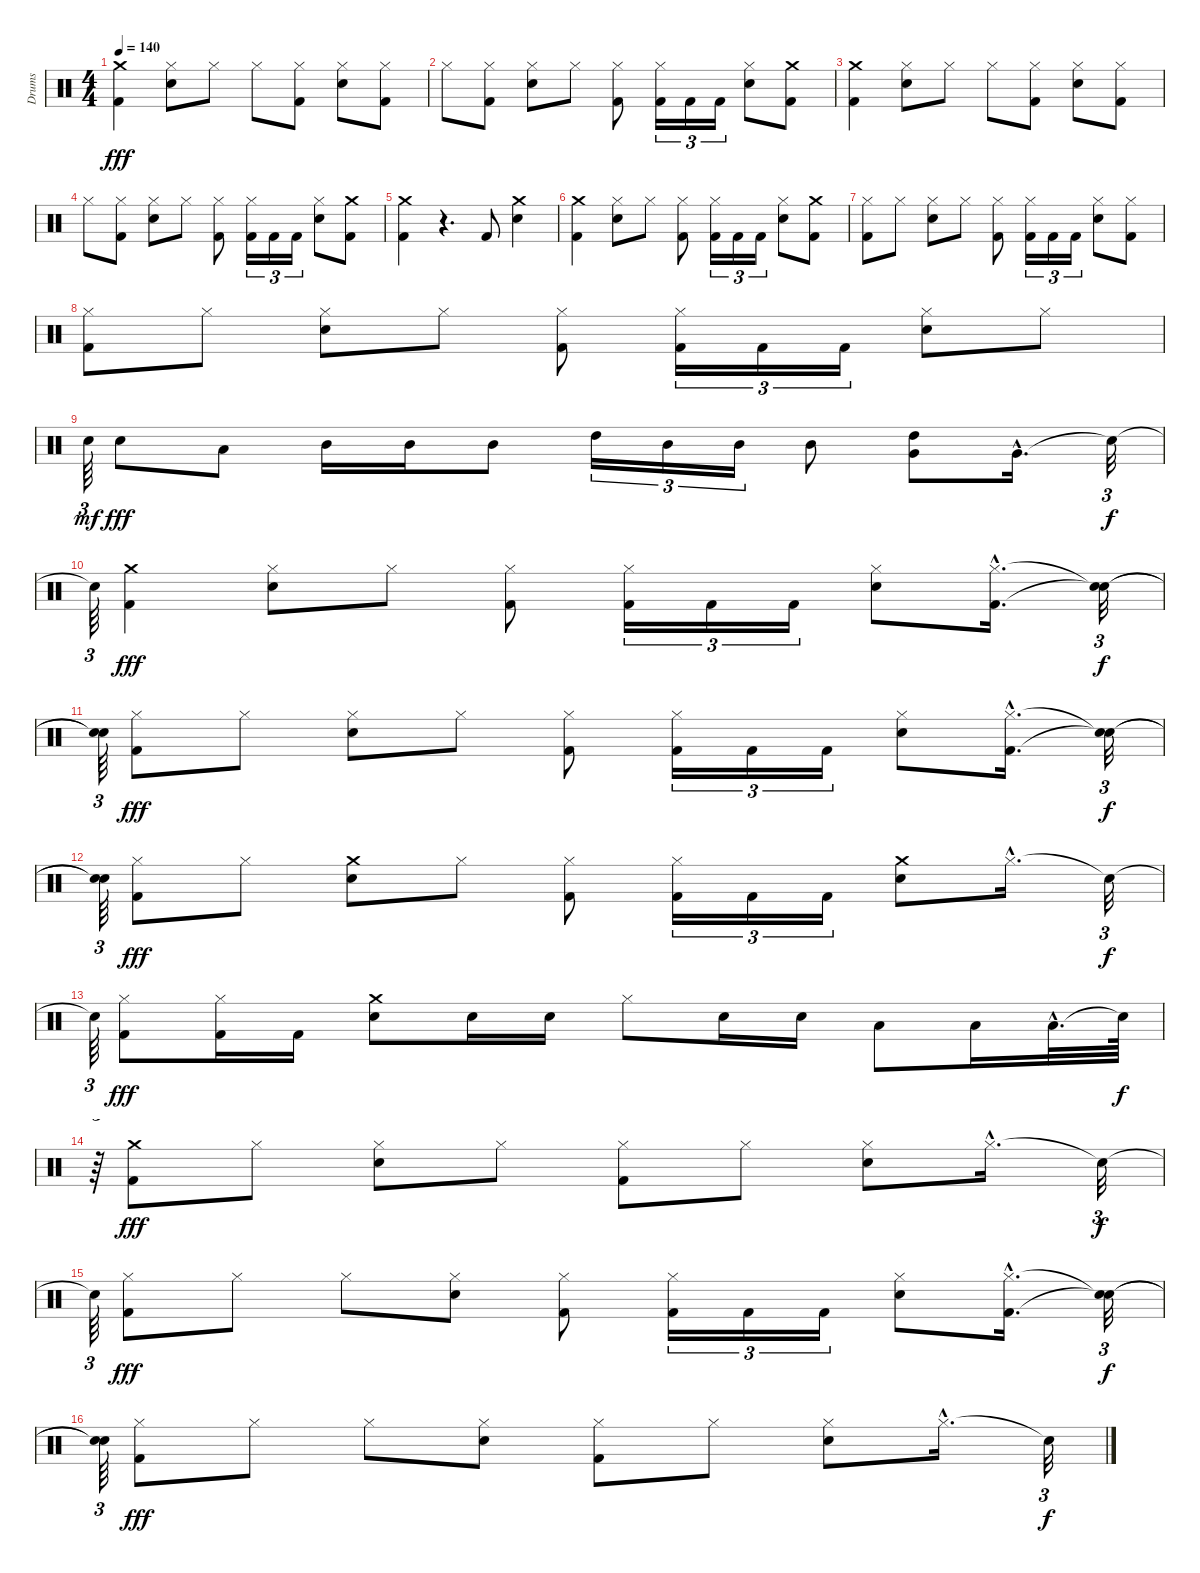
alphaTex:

\track ("Drums" "Drums") {instrument percussion}
\staff {score}
\articulation defaults
\ts (4 4)
\tempo 140
\clef neutral
\ks c
("Kick (hit) 2" "Crash medium (hit)").4{dy fff} ("Snare (hit) 2" "Hi-Hat (closed)").8 "Hi-Hat (closed)".8 "Hi-Hat (closed)".8 ("Kick (hit) 2" "Hi-Hat (closed)").8 ("Snare (hit) 2" "Hi-Hat (closed)").8 ("Kick (hit) 2" "Hi-Hat (closed)").8 |
"Hi-Hat (closed)".8 ("Kick (hit) 2" "Hi-Hat (closed)").8 ("Snare (hit) 2" "Hi-Hat (closed)").8 "Hi-Hat (closed)".8 ("Kick (hit) 2" "Hi-Hat (closed)").8 ("Kick (hit) 2" "Hi-Hat (closed)").16{tu (3 2)} "Kick (hit) 2".16{tu (3 2)} "Kick (hit) 2".16{tu (3 2)} ("Snare (hit) 2" "Hi-Hat (closed)").8 ("Kick (hit) 2" "Crash medium (hit)").8 |
("Kick (hit) 2" "Crash medium (hit)").4 ("Snare (hit) 2" "Hi-Hat (closed)").8 "Hi-Hat (closed)".8 "Hi-Hat (closed)".8 ("Kick (hit) 2" "Hi-Hat (closed)").8 ("Snare (hit) 2" "Hi-Hat (closed)").8 ("Kick (hit) 2" "Hi-Hat (closed)").8 |
"Hi-Hat (closed)".8 ("Kick (hit) 2" "Hi-Hat (closed)").8 ("Snare (hit) 2" "Hi-Hat (closed)").8 "Hi-Hat (closed)".8 ("Kick (hit) 2" "Hi-Hat (closed)").8 ("Kick (hit) 2" "Hi-Hat (closed)").16{tu (3 2)} "Kick (hit) 2".16{tu (3 2)} "Kick (hit) 2".16{tu (3 2)} ("Snare (hit) 2" "Hi-Hat (closed)").8 ("Kick (hit) 2" "Crash medium (hit)").8 |
("Kick (hit) 2" "Crash medium (hit)").4 r.4{d} "Kick (hit) 2".8 ("Crash medium (hit)" "Snare (hit) 2").4 |
("Crash medium (hit)" "Kick (hit) 2").4 ("Snare (hit) 2" "Hi-Hat (closed)").8 "Hi-Hat (closed)".8 ("Kick (hit) 2" "Hi-Hat (closed)").8 ("Kick (hit) 2" "Hi-Hat (closed)").16{tu (3 2)} "Kick (hit) 2".16{tu (3 2)} "Kick (hit) 2".16{tu (3 2)} ("Snare (hit) 2" "Hi-Hat (closed)").8 ("Kick (hit) 2" "Crash medium (hit)").8 |
("Kick (hit) 2" "Hi-Hat (closed)").8 "Hi-Hat (closed)".8 ("Snare (hit) 2" "Hi-Hat (closed)").8 "Hi-Hat (closed)".8 ("Kick (hit) 2" "Hi-Hat (closed)").8 ("Kick (hit) 2" "Hi-Hat (closed)").16{tu (3 2)} "Kick (hit) 2".16{tu (3 2)} "Kick (hit) 2".16{tu (3 2)} ("Snare (hit) 2" "Hi-Hat (closed)").8 ("Hi-Hat (closed)" "Kick (hit) 2").8 |
("Kick (hit) 2" "Hi-Hat (closed)").8 "Hi-Hat (closed)".8 ("Snare (hit) 2" "Hi-Hat (closed)").8 "Hi-Hat (closed)".8 ("Kick (hit) 2" "Hi-Hat (closed)").8 ("Kick (hit) 2" "Hi-Hat (closed)").16{tu (3 2)} "Kick (hit) 2".16{tu (3 2)} "Kick (hit) 2".16{tu (3 2)} ("Snare (hit) 2" "Hi-Hat (closed)").8 "Hi-Hat (closed)".8 |
"Snare (hit) 2".64{tu (3 2) dy mf} "Snare (hit) 2".8{dy fff} "Low Tom (hit)".8 "Mid Tom (hit)".16 "Mid Tom (hit)".16 "Mid Tom (hit)".8 "High Tom (hit)".16{tu (3 2)} "Mid Tom (hit)".16{tu (3 2)} "Mid Tom (hit)".16{tu (3 2)} "Mid Tom (hit)".8 ("Very Low Tom (hit)" "High Tom (hit)").8 "Very Low Tom (hit)"{hac}.16{d} "Snare (hit)"{t}.32{tu (3 2) dy f} |
"Snare (hit)"{t}.64{tu (3 2)} ("Crash medium (hit)" "Kick (hit) 2").4{dy fff} ("Snare (hit) 2" "Hi-Hat (closed)").8 "Hi-Hat (closed)".8 ("Kick (hit) 2" "Hi-Hat (closed)").8 ("Kick (hit) 2" "Hi-Hat (closed)").16{tu (3 2)} "Kick (hit) 2".16{tu (3 2)} "Kick (hit) 2".16{tu (3 2)} ("Snare (hit) 2" "Hi-Hat (closed)").8 ("Hi-Hat (closed)"{hac} "Kick (hit) 2"{hac}).16{d} ("Snare (hit)"{t} "Snare (hit)"{t}).32{tu (3 2) dy f} |
("Snare (hit)"{t} "Snare (hit)"{t}).64{tu (3 2)} ("Kick (hit) 2" "Hi-Hat (closed)").8{dy fff} "Hi-Hat (closed)".8 ("Snare (hit) 2" "Hi-Hat (closed)").8 "Hi-Hat (closed)".8 ("Kick (hit) 2" "Hi-Hat (closed)").8 ("Kick (hit) 2" "Hi-Hat (closed)").16{tu (3 2)} "Kick (hit) 2".16{tu (3 2)} "Kick (hit) 2".16{tu (3 2)} ("Snare (hit) 2" "Hi-Hat (closed)").8 ("Hi-Hat (closed)"{hac} "Kick (hit) 2"{hac}).16{d} ("Snare (hit)"{t} "Snare (hit)"{t}).32{tu (3 2) dy f} |
("Snare (hit)"{t} "Snare (hit)"{t}).64{tu (3 2)} ("Kick (hit) 2" "Hi-Hat (closed)").8{dy fff} "Hi-Hat (closed)".8 ("Crash medium (hit)" "Snare (hit) 2").8 "Hi-Hat (closed)".8 ("Kick (hit) 2" "Hi-Hat (closed)").8 ("Kick (hit) 2" "Hi-Hat (closed)").16{tu (3 2)} "Kick (hit) 2".16{tu (3 2)} "Kick (hit) 2".16{tu (3 2)} ("Crash medium (hit)" "Snare (hit) 2").8 "Hi-Hat (closed)"{hac}.16{d} "Snare (hit)"{t}.32{tu (3 2) dy f} |
"Snare (hit)"{t}.64{tu (3 2)} ("Kick (hit) 2" "Hi-Hat (closed)").8{dy fff} ("Kick (hit) 2" "Hi-Hat (closed)").16 "Kick (hit) 2".16 ("Snare (hit) 2" "Crash medium (hit)").8 "Snare (hit) 2".16 "Snare (hit) 2".16 "Hi-Hat (closed)".8 "Snare (hit) 2".16 "Snare (hit) 2".16 "Low Tom (hit)".8 "Low Tom (hit)".16 "Low Tom (hit)"{hac}.32{d} "Snare (hit)"{t}.64{dy f} |
r.64{tu (3 2)} ("Kick (hit) 2" "Crash medium (hit)").8{dy fff} "Hi-Hat (closed)".8 ("Snare (hit) 2" "Hi-Hat (closed)").8 "Hi-Hat (closed)".8 ("Kick (hit) 2" "Hi-Hat (closed)").8 "Hi-Hat (closed)".8 ("Snare (hit) 2" "Hi-Hat (closed)").8 "Hi-Hat (closed)"{hac}.16{d} "Snare (hit)"{t}.32{tu (3 2) dy f} |
"Snare (hit)"{t}.64{tu (3 2)} ("Kick (hit) 2" "Hi-Hat (closed)").8{dy fff} "Hi-Hat (closed)".8 "Hi-Hat (closed)".8 ("Snare (hit) 2" "Hi-Hat (closed)").8 ("Kick (hit) 2" "Hi-Hat (closed)").8 ("Kick (hit) 2" "Hi-Hat (closed)").16{tu (3 2)} "Kick (hit) 2".16{tu (3 2)} "Kick (hit) 2".16{tu (3 2)} ("Snare (hit) 2" "Hi-Hat (closed)").8 ("Kick (hit) 2"{hac} "Hi-Hat (closed)"{hac}).16{d} ("Snare (hit)"{t} "Snare (hit)"{t}).32{tu (3 2) dy f} |
("Snare (hit)"{t} "Snare (hit)"{t}).64{tu (3 2)} ("Hi-Hat (closed)" "Kick (hit) 2").8{dy fff} "Hi-Hat (closed)".8 "Hi-Hat (closed)".8 ("Snare (hit) 2" "Hi-Hat (closed)").8 ("Hi-Hat (closed)" "Kick (hit) 2").8 "Hi-Hat (closed)".8 ("Snare (hit) 2" "Hi-Hat (closed)").8 "Hi-Hat (closed)"{hac}.16{d} "Snare (hit)"{t}.32{tu (3 2) dy f}
